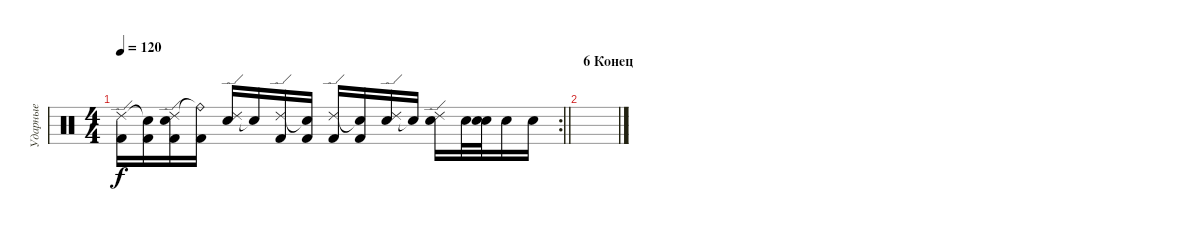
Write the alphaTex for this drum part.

\track ("Ударные" "Ударные") {instrument percussion}
\staff {score}
\articulation defaults
\rc 2
\ts (4 4)
\tempo 120
\clef neutral
\barLineRight lightlight
\ks c
("Ride (edge) 2" "Kick (hit) 2").16{dy f} ("Snare (hit)"{t} "Kick (hit) 2").16 ("Ride (edge) 2" "Electric Snare (hit)" "Kick (hit) 2").16 ("Ride (bell)"{t} "Kick (hit) 2").16 ("Ride (edge) 2" "Electric Snare (hit)").16 "Snare (hit)"{t}.16 ("Ride (edge) 2" "Kick (hit) 2").16 ("Snare (hit)"{t} "Kick (hit) 2").16 ("Ride (edge) 2" "Kick (hit) 2").16 ("Snare (hit)"{t} "Kick (hit) 2").16 ("Ride (edge) 2" "Electric Snare (hit)").16 "Snare (hit)"{t}.16 ("Ride (edge) 2" "Electric Snare (hit)").16 "Electric Snare (hit)".32 ("Snare (hit)"{t} "Electric Snare (hit)").32 "Electric Snare (hit)".16 "Electric Snare (hit)".16 |
\section ("" "6 Конец")
